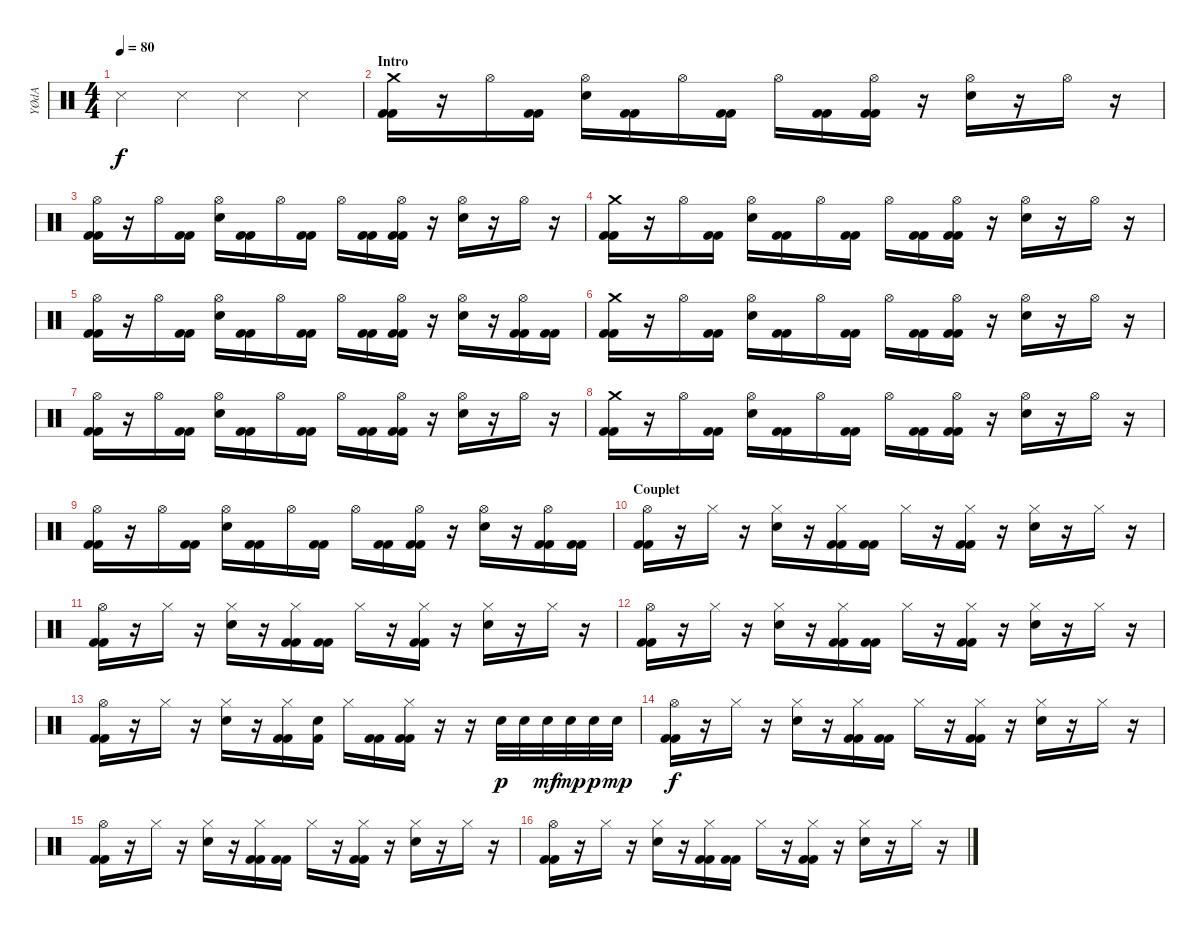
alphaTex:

\track ("YØdA" "YØdA") {instrument percussion}
\staff {score}
\articulation defaults
\ts (4 4)
\tempo 80
\clef neutral
\ks c "Snare (side stick) 3".4{dy f} "Snare (side stick) 3".4 "Snare (side stick) 3".4 "Snare (side stick) 3".4
|
\section ("" "Intro")
("Kick (hit) 2" "Crash medium (hit)" "Kick (hit) 2").16 r.16 "Hi-Hat (open)".16 ("Kick (hit) 2" "Kick (hit) 2").16 ("Hi-Hat (open)" "Electric Snare (hit)").16 ("Kick (hit) 2" "Kick (hit) 2").16 "Hi-Hat (open)".16 ("Kick (hit) 2" "Kick (hit) 2").16 "Hi-Hat (open)".16 ("Kick (hit) 2" "Kick (hit) 2").16 ("Kick (hit) 2" "Hi-Hat (open)" "Kick (hit) 2").16 r.16 ("Hi-Hat (open)" "Electric Snare (hit)").16 r.16 "Hi-Hat (open)".16 r.16 |
("Kick (hit) 2" "Hi-Hat (open)" "Kick (hit) 2").16 r.16 "Hi-Hat (open)".16 ("Kick (hit) 2" "Kick (hit) 2").16 ("Hi-Hat (open)" "Electric Snare (hit)").16 ("Kick (hit) 2" "Kick (hit) 2").16 "Hi-Hat (open)".16 ("Kick (hit) 2" "Kick (hit) 2").16 "Hi-Hat (open)".16 ("Kick (hit) 2" "Kick (hit) 2").16 ("Kick (hit) 2" "Hi-Hat (open)" "Kick (hit) 2").16 r.16 ("Hi-Hat (open)" "Electric Snare (hit)").16 r.16 "Hi-Hat (open)".16 r.16 |
("Kick (hit) 2" "Crash medium (hit)" "Kick (hit) 2").16 r.16 "Hi-Hat (open)".16 ("Kick (hit) 2" "Kick (hit) 2").16 ("Hi-Hat (open)" "Electric Snare (hit)").16 ("Kick (hit) 2" "Kick (hit) 2").16 "Hi-Hat (open)".16 ("Kick (hit) 2" "Kick (hit) 2").16 "Hi-Hat (open)".16 ("Kick (hit) 2" "Kick (hit) 2").16 ("Kick (hit) 2" "Hi-Hat (open)" "Kick (hit) 2").16 r.16 ("Hi-Hat (open)" "Electric Snare (hit)").16 r.16 "Hi-Hat (open)".16 r.16 |
("Kick (hit) 2" "Hi-Hat (open)" "Kick (hit) 2").16 r.16 "Hi-Hat (open)".16 ("Kick (hit) 2" "Kick (hit) 2").16 ("Hi-Hat (open)" "Electric Snare (hit)").16 ("Kick (hit) 2" "Kick (hit) 2").16 "Hi-Hat (open)".16 ("Kick (hit) 2" "Kick (hit) 2").16 "Hi-Hat (open)".16 ("Kick (hit) 2" "Kick (hit) 2").16 ("Kick (hit) 2" "Hi-Hat (open)" "Kick (hit) 2").16 r.16 ("Hi-Hat (open)" "Electric Snare (hit)").16 r.16 ("Kick (hit) 2" "Hi-Hat (open)" "Kick (hit) 2").16 ("Kick (hit) 2" "Kick (hit) 2").16 |
("Kick (hit) 2" "Crash medium (hit)" "Kick (hit) 2").16 r.16 "Hi-Hat (open)".16 ("Kick (hit) 2" "Kick (hit) 2").16 ("Hi-Hat (open)" "Electric Snare (hit)").16 ("Kick (hit) 2" "Kick (hit) 2").16 "Hi-Hat (open)".16 ("Kick (hit) 2" "Kick (hit) 2").16 "Hi-Hat (open)".16 ("Kick (hit) 2" "Kick (hit) 2").16 ("Kick (hit) 2" "Hi-Hat (open)" "Kick (hit) 2").16 r.16 ("Hi-Hat (open)" "Electric Snare (hit)").16 r.16 "Hi-Hat (open)".16 r.16 |
("Kick (hit) 2" "Hi-Hat (open)" "Kick (hit) 2").16 r.16 "Hi-Hat (open)".16 ("Kick (hit) 2" "Kick (hit) 2").16 ("Hi-Hat (open)" "Electric Snare (hit)").16 ("Kick (hit) 2" "Kick (hit) 2").16 "Hi-Hat (open)".16 ("Kick (hit) 2" "Kick (hit) 2").16 "Hi-Hat (open)".16 ("Kick (hit) 2" "Kick (hit) 2").16 ("Kick (hit) 2" "Hi-Hat (open)" "Kick (hit) 2").16 r.16 ("Hi-Hat (open)" "Electric Snare (hit)").16 r.16 "Hi-Hat (open)".16 r.16 |
("Kick (hit) 2" "Crash medium (hit)" "Kick (hit) 2").16 r.16 "Hi-Hat (open)".16 ("Kick (hit) 2" "Kick (hit) 2").16 ("Hi-Hat (open)" "Electric Snare (hit)").16 ("Kick (hit) 2" "Kick (hit) 2").16 "Hi-Hat (open)".16 ("Kick (hit) 2" "Kick (hit) 2").16 "Hi-Hat (open)".16 ("Kick (hit) 2" "Kick (hit) 2").16 ("Kick (hit) 2" "Hi-Hat (open)" "Kick (hit) 2").16 r.16 ("Hi-Hat (open)" "Electric Snare (hit)").16 r.16 "Hi-Hat (open)".16 r.16 |
("Kick (hit) 2" "Hi-Hat (open)" "Kick (hit) 2").16 r.16 "Hi-Hat (open)".16 ("Kick (hit) 2" "Kick (hit) 2").16 ("Hi-Hat (open)" "Electric Snare (hit)").16 ("Kick (hit) 2" "Kick (hit) 2").16 "Hi-Hat (open)".16 ("Kick (hit) 2" "Kick (hit) 2").16 "Hi-Hat (open)".16 ("Kick (hit) 2" "Kick (hit) 2").16 ("Kick (hit) 2" "Hi-Hat (open)" "Kick (hit) 2").16 r.16 ("Hi-Hat (open)" "Electric Snare (hit)").16 r.16 ("Kick (hit) 2" "Hi-Hat (open)" "Kick (hit) 2").16 ("Kick (hit) 2" "Kick (hit) 2").16 |
\section ("" "Couplet")
("Kick (hit) 2" "Hi-Hat (open)" "Kick (hit) 2").16 r.16 "Hi-Hat (closed)".16 r.16 ("Hi-Hat (closed)" "Electric Snare (hit)").16 r.16 ("Kick (hit) 2" "Hi-Hat (closed)" "Kick (hit) 2").16 ("Kick (hit) 2" "Kick (hit) 2").16 "Hi-Hat (closed)".16 r.16 ("Kick (hit) 2" "Hi-Hat (closed)" "Kick (hit) 2").16 r.16 ("Hi-Hat (closed)" "Electric Snare (hit)").16 r.16 "Hi-Hat (closed)".16 r.16 |
("Kick (hit) 2" "Hi-Hat (open)" "Kick (hit) 2").16 r.16 "Hi-Hat (closed)".16 r.16 ("Hi-Hat (closed)" "Electric Snare (hit)").16 r.16 ("Kick (hit) 2" "Hi-Hat (closed)" "Kick (hit) 2").16 ("Kick (hit) 2" "Kick (hit) 2").16 "Hi-Hat (closed)".16 r.16 ("Kick (hit) 2" "Hi-Hat (closed)" "Kick (hit) 2").16 r.16 ("Hi-Hat (closed)" "Electric Snare (hit)").16 r.16 "Hi-Hat (closed)".16 r.16 |
("Kick (hit) 2" "Hi-Hat (open)" "Kick (hit) 2").16 r.16 "Hi-Hat (closed)".16 r.16 ("Hi-Hat (closed)" "Electric Snare (hit)").16 r.16 ("Kick (hit) 2" "Hi-Hat (closed)" "Kick (hit) 2").16 ("Kick (hit) 2" "Kick (hit) 2").16 "Hi-Hat (closed)".16 r.16 ("Kick (hit) 2" "Hi-Hat (closed)" "Kick (hit) 2").16 r.16 ("Hi-Hat (closed)" "Electric Snare (hit)").16 r.16 "Hi-Hat (closed)".16 r.16 |
("Kick (hit) 2" "Hi-Hat (open)" "Kick (hit) 2").16 r.16 "Hi-Hat (closed)".16 r.16 ("Hi-Hat (closed)" "Electric Snare (hit)").16 r.16 ("Kick (hit) 2" "Hi-Hat (closed)" "Kick (hit) 2").16 ("Kick (hit) 2" "Electric Snare (hit)").16 "Hi-Hat (closed)".16 ("Kick (hit) 2" "Kick (hit) 2").16 ("Kick (hit) 2" "Hi-Hat (closed)" "Kick (hit) 2").16 r.16 r.16 "Electric Snare (hit)".32{dy p} "Electric Snare (hit)".32 "Electric Snare (hit)".32{dy mf} "Electric Snare (hit)".32{dy mp} "Electric Snare (hit)".32{dy p} "Electric Snare (hit)".32{dy mp} |
("Kick (hit) 2" "Hi-Hat (open)" "Kick (hit) 2").16{dy f} r.16 "Hi-Hat (closed)".16 r.16 ("Hi-Hat (closed)" "Electric Snare (hit)").16 r.16 ("Kick (hit) 2" "Hi-Hat (closed)" "Kick (hit) 2").16 ("Kick (hit) 2" "Kick (hit) 2").16 "Hi-Hat (closed)".16 r.16 ("Kick (hit) 2" "Hi-Hat (closed)" "Kick (hit) 2").16 r.16 ("Hi-Hat (closed)" "Electric Snare (hit)").16 r.16 "Hi-Hat (closed)".16 r.16 |
("Kick (hit) 2" "Hi-Hat (open)" "Kick (hit) 2").16 r.16 "Hi-Hat (closed)".16 r.16 ("Hi-Hat (closed)" "Electric Snare (hit)").16 r.16 ("Kick (hit) 2" "Hi-Hat (closed)" "Kick (hit) 2").16 ("Kick (hit) 2" "Kick (hit) 2").16 "Hi-Hat (closed)".16 r.16 ("Kick (hit) 2" "Hi-Hat (closed)" "Kick (hit) 2").16 r.16 ("Hi-Hat (closed)" "Electric Snare (hit)").16 r.16 "Hi-Hat (closed)".16 r.16 |
("Kick (hit) 2" "Hi-Hat (open)" "Kick (hit) 2").16 r.16 "Hi-Hat (closed)".16 r.16 ("Hi-Hat (closed)" "Electric Snare (hit)").16 r.16 ("Kick (hit) 2" "Hi-Hat (closed)" "Kick (hit) 2").16 ("Kick (hit) 2" "Kick (hit) 2").16 "Hi-Hat (closed)".16 r.16 ("Kick (hit) 2" "Hi-Hat (closed)" "Kick (hit) 2").16 r.16 ("Hi-Hat (closed)" "Electric Snare (hit)").16 r.16 "Hi-Hat (closed)".16 r.16
